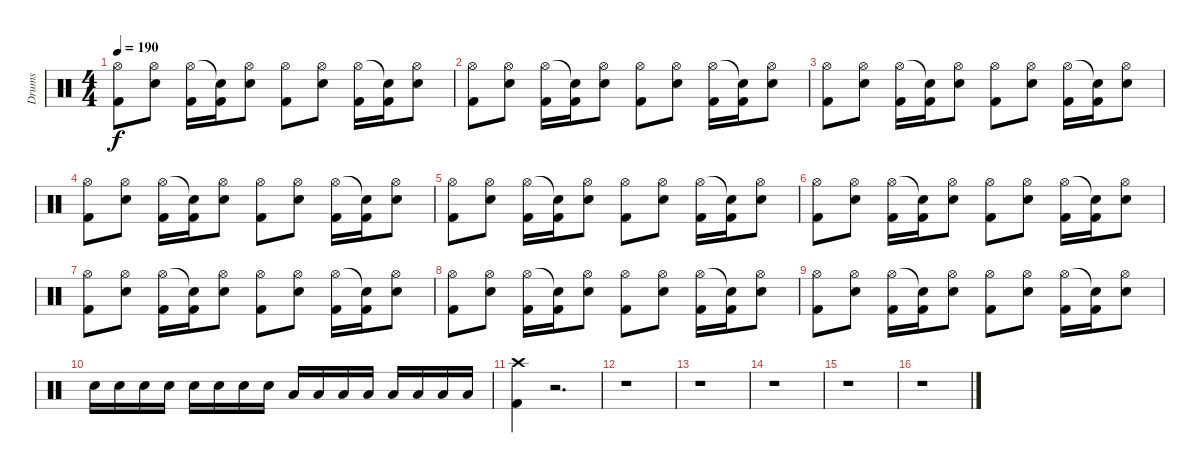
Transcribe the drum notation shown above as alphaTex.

\track ("Drums" "Drums") {instrument percussion}
\staff {score}
\articulation defaults
\ts (4 4)
\tempo 190
\clef neutral
\ks c
("Hi-Hat (open)" "Kick (hit) 2").8{dy f} ("Hi-Hat (open)" "Snare (hit) 2").8 ("Hi-Hat (open)" "Kick (hit) 2").16 ("Snare (hit)"{t} "Kick (hit) 2").16 ("Hi-Hat (open)" "Snare (hit) 2").8 ("Hi-Hat (open)" "Kick (hit) 2").8 ("Hi-Hat (open)" "Snare (hit) 2").8 ("Hi-Hat (open)" "Kick (hit) 2").16 ("Snare (hit)"{t} "Kick (hit) 2").16 ("Hi-Hat (open)" "Snare (hit) 2").8 |
("Hi-Hat (open)" "Kick (hit) 2").8 ("Hi-Hat (open)" "Snare (hit) 2").8 ("Hi-Hat (open)" "Kick (hit) 2").16 ("Snare (hit)"{t} "Kick (hit) 2").16 ("Hi-Hat (open)" "Snare (hit) 2").8 ("Hi-Hat (open)" "Kick (hit) 2").8 ("Hi-Hat (open)" "Snare (hit) 2").8 ("Hi-Hat (open)" "Kick (hit) 2").16 ("Snare (hit)"{t} "Kick (hit) 2").16 ("Hi-Hat (open)" "Snare (hit) 2").8 |
("Hi-Hat (open)" "Kick (hit) 2").8 ("Hi-Hat (open)" "Snare (hit) 2").8 ("Hi-Hat (open)" "Kick (hit) 2").16 ("Snare (hit)"{t} "Kick (hit) 2").16 ("Hi-Hat (open)" "Snare (hit) 2").8 ("Hi-Hat (open)" "Kick (hit) 2").8 ("Hi-Hat (open)" "Snare (hit) 2").8 ("Hi-Hat (open)" "Kick (hit) 2").16 ("Snare (hit)"{t} "Kick (hit) 2").16 ("Hi-Hat (open)" "Snare (hit) 2").8 |
("Hi-Hat (open)" "Kick (hit) 2").8 ("Hi-Hat (open)" "Snare (hit) 2").8 ("Hi-Hat (open)" "Kick (hit) 2").16 ("Snare (hit)"{t} "Kick (hit) 2").16 ("Hi-Hat (open)" "Snare (hit) 2").8 ("Hi-Hat (open)" "Kick (hit) 2").8 ("Hi-Hat (open)" "Snare (hit) 2").8 ("Hi-Hat (open)" "Kick (hit) 2").16 ("Snare (hit)"{t} "Kick (hit) 2").16 ("Hi-Hat (open)" "Snare (hit) 2").8 |
("Hi-Hat (open)" "Kick (hit) 2").8 ("Hi-Hat (open)" "Snare (hit) 2").8 ("Hi-Hat (open)" "Kick (hit) 2").16 ("Snare (hit)"{t} "Kick (hit) 2").16 ("Hi-Hat (open)" "Snare (hit) 2").8 ("Hi-Hat (open)" "Kick (hit) 2").8 ("Hi-Hat (open)" "Snare (hit) 2").8 ("Hi-Hat (open)" "Kick (hit) 2").16 ("Snare (hit)"{t} "Kick (hit) 2").16 ("Hi-Hat (open)" "Snare (hit) 2").8 |
("Hi-Hat (open)" "Kick (hit) 2").8 ("Hi-Hat (open)" "Snare (hit) 2").8 ("Hi-Hat (open)" "Kick (hit) 2").16 ("Snare (hit)"{t} "Kick (hit) 2").16 ("Hi-Hat (open)" "Snare (hit) 2").8 ("Hi-Hat (open)" "Kick (hit) 2").8 ("Hi-Hat (open)" "Snare (hit) 2").8 ("Hi-Hat (open)" "Kick (hit) 2").16 ("Snare (hit)"{t} "Kick (hit) 2").16 ("Hi-Hat (open)" "Snare (hit) 2").8 |
("Hi-Hat (open)" "Kick (hit) 2").8 ("Hi-Hat (open)" "Snare (hit) 2").8 ("Hi-Hat (open)" "Kick (hit) 2").16 ("Snare (hit)"{t} "Kick (hit) 2").16 ("Hi-Hat (open)" "Snare (hit) 2").8 ("Hi-Hat (open)" "Kick (hit) 2").8 ("Hi-Hat (open)" "Snare (hit) 2").8 ("Hi-Hat (open)" "Kick (hit) 2").16 ("Snare (hit)"{t} "Kick (hit) 2").16 ("Hi-Hat (open)" "Snare (hit) 2").8 |
("Hi-Hat (open)" "Kick (hit) 2").8 ("Hi-Hat (open)" "Snare (hit) 2").8 ("Hi-Hat (open)" "Kick (hit) 2").16 ("Snare (hit)"{t} "Kick (hit) 2").16 ("Hi-Hat (open)" "Snare (hit) 2").8 ("Hi-Hat (open)" "Kick (hit) 2").8 ("Hi-Hat (open)" "Snare (hit) 2").8 ("Hi-Hat (open)" "Kick (hit) 2").16 ("Snare (hit)"{t} "Kick (hit) 2").16 ("Hi-Hat (open)" "Snare (hit) 2").8 |
("Hi-Hat (open)" "Kick (hit) 2").8 ("Hi-Hat (open)" "Snare (hit) 2").8 ("Hi-Hat (open)" "Kick (hit) 2").16 ("Snare (hit)"{t} "Kick (hit) 2").16 ("Hi-Hat (open)" "Snare (hit) 2").8 ("Hi-Hat (open)" "Kick (hit) 2").8 ("Hi-Hat (open)" "Snare (hit) 2").8 ("Hi-Hat (open)" "Kick (hit) 2").16 ("Snare (hit)"{t} "Kick (hit) 2").16 ("Hi-Hat (open)" "Snare (hit) 2").8 |
"Snare (hit) 2".16 "Snare (hit) 2".16 "Snare (hit) 2".16 "Snare (hit) 2".16 "Snare (hit) 2".16 "Snare (hit) 2".16 "Snare (hit) 2".16 "Snare (hit) 2".16 "Low Tom (hit)".16 "Low Tom (hit)".16 "Low Tom (hit)".16 "Low Tom (hit)".16 "Low Floor Tom (hit)".16 "Low Floor Tom (hit)".16 "Low Floor Tom (hit)".16 "Low Floor Tom (hit)".16 |
("Crash high (hit)" "Kick (hit) 2").4 r.2{d} |
r.1 |
r.1 |
r.1 |
r.1 |
r.1
